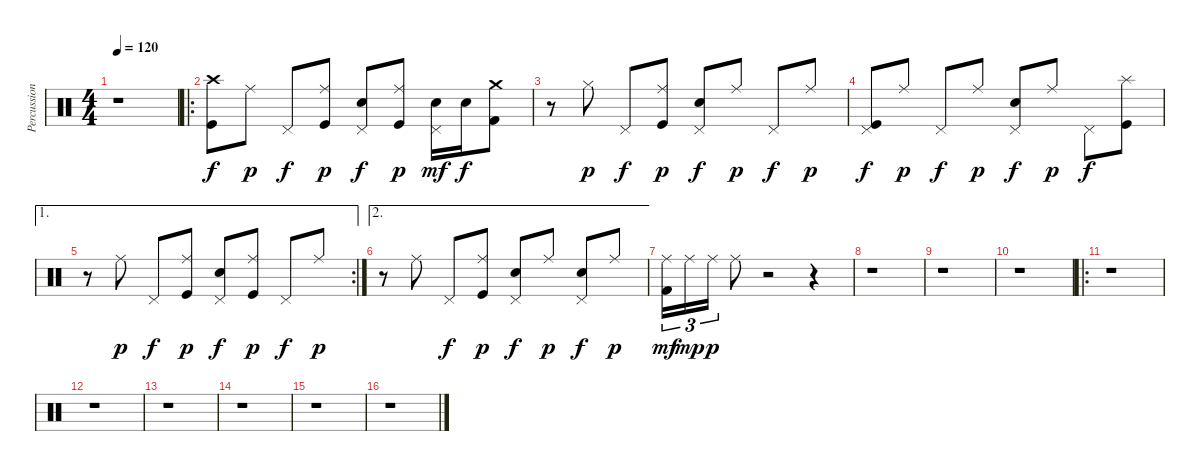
\track ("Percussion" "Percussion") {instrument percussion}
\staff {score}
\articulation defaults
\ts (4 4)
\tempo 120
\clef neutral
\ks c
r.1{dy f} |
\ro
("Crash high (hit)" "Kick (hit)").8 "Ride (middle)".8{dy p} "Pedal Hi-Hat (hit)".8{dy f} ("Ride (middle)" "Kick (hit)").8{dy p} ("Pedal Hi-Hat (hit)" "Snare (hit) 2").8{dy f} ("Ride (middle)" "Kick (hit)").8{dy p} ("Pedal Hi-Hat (hit)" "Snare (hit) 2").16{dy mf} "Snare (hit) 2".16{dy f} ("Crash medium (hit)" "Kick (hit) 2").8 |
r.8 "Hi-Hat (closed)".8{dy p} "Pedal Hi-Hat (hit)".8{dy f} ("Ride (middle)" "Kick (hit)").8{dy p} ("Pedal Hi-Hat (hit)" "Snare (hit) 2").8{dy f} "Ride (middle)".8{dy p} "Pedal Hi-Hat (hit)".8{dy f} "Ride (middle)".8{dy p} |
("Pedal Hi-Hat (hit)" "Kick (hit)").8{dy f} "Ride (middle)".8{dy p} "Pedal Hi-Hat (hit)".8{dy f} "Ride (middle)".8{dy p} ("Pedal Hi-Hat (hit)" "Snare (hit) 2").8{dy f} "Ride (middle)".8{dy p} "Pedal Hi-Hat (hit)".8{dy f} ("Splash (hit)" "Kick (hit)").8 |
\ae 1
\rc 2
r.8 "Ride (middle)".8{dy p} "Pedal Hi-Hat (hit)".8{dy f} ("Ride (middle)" "Kick (hit)").8{dy p} ("Pedal Hi-Hat (hit)" "Snare (hit) 2").8{dy f} ("Ride (middle)" "Kick (hit)").8{dy p} "Pedal Hi-Hat (hit)".8{dy f} "Ride (middle)".8{dy p} |
\ae 2
r.8 "Ride (middle)".8 "Pedal Hi-Hat (hit)".8{dy f} ("Ride (middle)" "Kick (hit)").8{dy p} ("Pedal Hi-Hat (hit)" "Snare (hit) 2").8{dy f} "Ride (middle)".8{dy p} ("Pedal Hi-Hat (hit)" "Snare (hit) 2").8{dy f} "Ride (middle)".8{dy p} |
("Ride (middle)" "Kick (hit) 2").16{tu (3 2) dy mf} "Ride (middle)".16{tu (3 2) dy mp} "Ride (middle)".16{tu (3 2) dy p} "Ride (middle)".8 r.2 r.4 |
r.1 |
r.1 |
r.1 |
\ro
r.1 |
r.1 |
r.1 |
r.1 |
r.1 |
r.1
